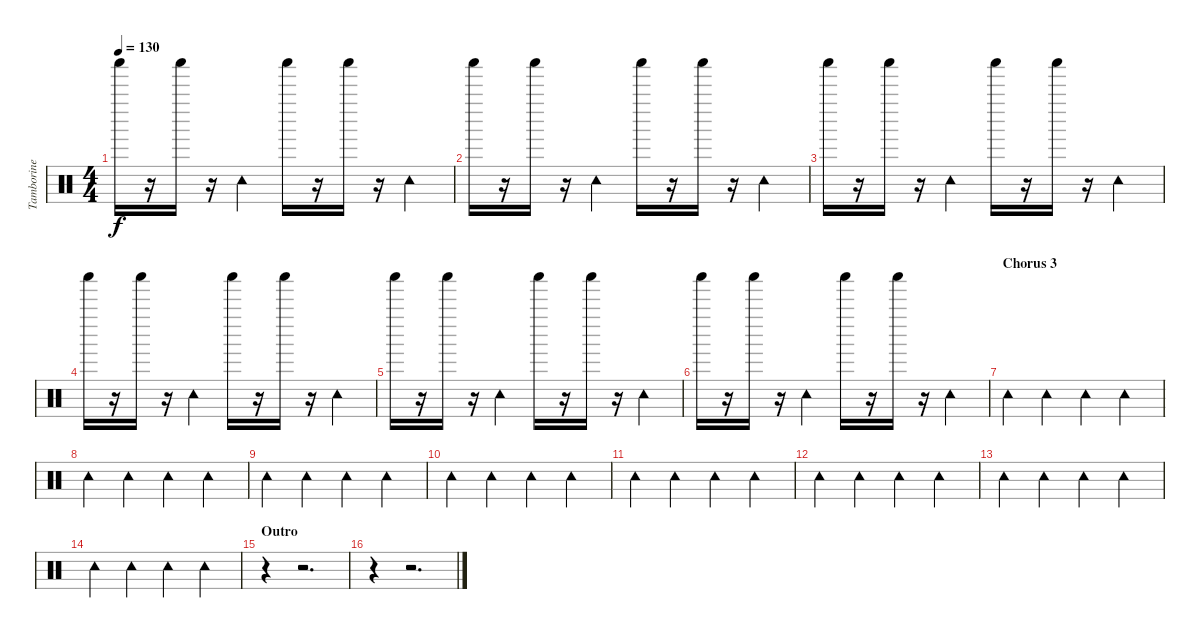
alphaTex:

\track ("Tamborine" "Tamborine") {instrument percussion}
\staff {score}
\articulation defaults
\ts (4 4)
\tempo 130
\clef neutral
\ks c "Shaker (hit)".16{dy f}
r.16 "Shaker (hit)".16 r.16 "Tambourine (hit)".4 "Shaker (hit)".16 r.16 "Shaker (hit)".16 r.16 "Tambourine (hit)".4 |
"Shaker (hit)".16 r.16 "Shaker (hit)".16 r.16 "Tambourine (hit)".4 "Shaker (hit)".16 r.16 "Shaker (hit)".16 r.16 "Tambourine (hit)".4 |
"Shaker (hit)".16 r.16 "Shaker (hit)".16 r.16 "Tambourine (hit)".4 "Shaker (hit)".16 r.16 "Shaker (hit)".16 r.16 "Tambourine (hit)".4 |
"Shaker (hit)".16 r.16 "Shaker (hit)".16 r.16 "Tambourine (hit)".4 "Shaker (hit)".16 r.16 "Shaker (hit)".16 r.16 "Tambourine (hit)".4 |
"Shaker (hit)".16 r.16 "Shaker (hit)".16 r.16 "Tambourine (hit)".4 "Shaker (hit)".16 r.16 "Shaker (hit)".16 r.16 "Tambourine (hit)".4 |
"Shaker (hit)".16 r.16 "Shaker (hit)".16 r.16 "Tambourine (hit)".4 "Shaker (hit)".16 r.16 "Shaker (hit)".16 r.16 "Tambourine (hit)".4 |
\section ("" "Chorus 3")
"Tambourine (hit)".4 "Tambourine (hit)".4 "Tambourine (hit)".4 "Tambourine (hit)".4 |
"Tambourine (hit)".4 "Tambourine (hit)".4 "Tambourine (hit)".4 "Tambourine (hit)".4 |
"Tambourine (hit)".4 "Tambourine (hit)".4 "Tambourine (hit)".4 "Tambourine (hit)".4 |
"Tambourine (hit)".4 "Tambourine (hit)".4 "Tambourine (hit)".4 "Tambourine (hit)".4 |
"Tambourine (hit)".4 "Tambourine (hit)".4 "Tambourine (hit)".4 "Tambourine (hit)".4 |
"Tambourine (hit)".4 "Tambourine (hit)".4 "Tambourine (hit)".4 "Tambourine (hit)".4 |
"Tambourine (hit)".4 "Tambourine (hit)".4 "Tambourine (hit)".4 "Tambourine (hit)".4 |
"Tambourine (hit)".4 "Tambourine (hit)".4 "Tambourine (hit)".4 "Tambourine (hit)".4 |
\section ("" "Outro")
r.4 r.2{d} |
r.4 r.2{d}
